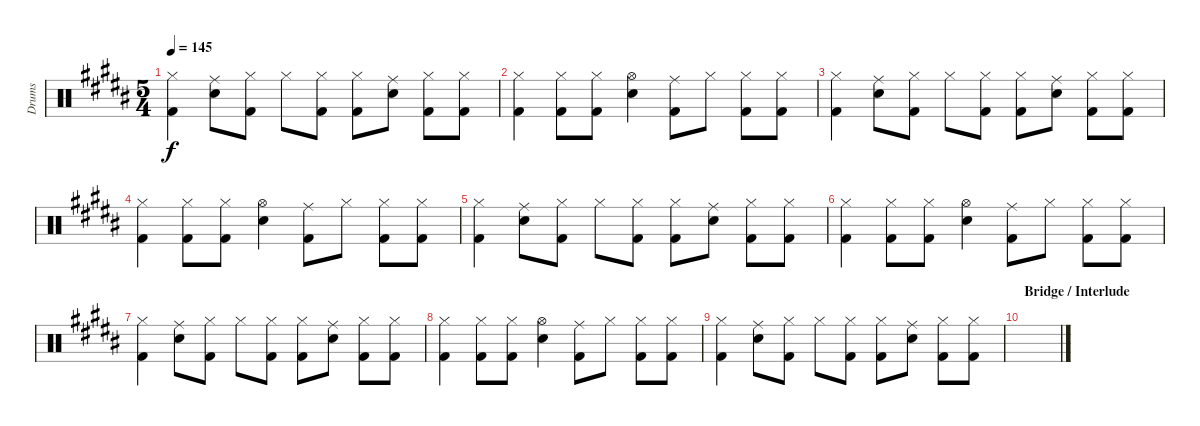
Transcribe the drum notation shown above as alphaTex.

\track ("Drums" "Drums") {instrument percussion}
\staff {score}
\articulation defaults
\ts (5 4)
\tempo 145
\clef neutral
\ks b
("Hi-Hat (closed)" "Kick (hit) 2").4{dy f} ("Ride (middle)" "Electric Snare (hit)").8 ("Hi-Hat (closed)" "Kick (hit) 2").8 "Hi-Hat (closed)".8 ("Hi-Hat (closed)" "Kick (hit) 2").8 ("Hi-Hat (closed)" "Kick (hit) 2").8 ("Ride (middle)" "Electric Snare (hit)").8 ("Hi-Hat (closed)" "Kick (hit) 2").8 ("Hi-Hat (closed)" "Kick (hit) 2").8 |
("Hi-Hat (closed)" "Kick (hit) 2").4 ("Hi-Hat (closed)" "Kick (hit) 2").8 ("Hi-Hat (closed)" "Kick (hit) 2").8 ("Hi-Hat (open)" "Electric Snare (hit)").4 ("Ride (middle)" "Kick (hit) 2").8 "Hi-Hat (closed)".8 ("Hi-Hat (closed)" "Kick (hit) 2").8 ("Hi-Hat (closed)" "Kick (hit) 2").8 |
("Hi-Hat (closed)" "Kick (hit) 2").4 ("Ride (middle)" "Electric Snare (hit)").8 ("Hi-Hat (closed)" "Kick (hit) 2").8 "Hi-Hat (closed)".8 ("Hi-Hat (closed)" "Kick (hit) 2").8 ("Hi-Hat (closed)" "Kick (hit) 2").8 ("Ride (middle)" "Electric Snare (hit)").8 ("Hi-Hat (closed)" "Kick (hit) 2").8 ("Hi-Hat (closed)" "Kick (hit) 2").8 |
("Hi-Hat (closed)" "Kick (hit) 2").4 ("Hi-Hat (closed)" "Kick (hit) 2").8 ("Hi-Hat (closed)" "Kick (hit) 2").8 ("Hi-Hat (open)" "Electric Snare (hit)").4 ("Ride (middle)" "Kick (hit) 2").8 "Hi-Hat (closed)".8 ("Hi-Hat (closed)" "Kick (hit) 2").8 ("Hi-Hat (closed)" "Kick (hit) 2").8 |
("Hi-Hat (closed)" "Kick (hit) 2").4 ("Ride (middle)" "Electric Snare (hit)").8 ("Hi-Hat (closed)" "Kick (hit) 2").8 "Hi-Hat (closed)".8 ("Hi-Hat (closed)" "Kick (hit) 2").8 ("Hi-Hat (closed)" "Kick (hit) 2").8 ("Ride (middle)" "Electric Snare (hit)").8 ("Hi-Hat (closed)" "Kick (hit) 2").8 ("Hi-Hat (closed)" "Kick (hit) 2").8 |
("Hi-Hat (closed)" "Kick (hit) 2").4 ("Hi-Hat (closed)" "Kick (hit) 2").8 ("Hi-Hat (closed)" "Kick (hit) 2").8 ("Hi-Hat (open)" "Electric Snare (hit)").4 ("Ride (middle)" "Kick (hit) 2").8 "Hi-Hat (closed)".8 ("Hi-Hat (closed)" "Kick (hit) 2").8 ("Hi-Hat (closed)" "Kick (hit) 2").8 |
("Hi-Hat (closed)" "Kick (hit) 2").4 ("Ride (middle)" "Electric Snare (hit)").8 ("Hi-Hat (closed)" "Kick (hit) 2").8 "Hi-Hat (closed)".8 ("Hi-Hat (closed)" "Kick (hit) 2").8 ("Hi-Hat (closed)" "Kick (hit) 2").8 ("Ride (middle)" "Electric Snare (hit)").8 ("Hi-Hat (closed)" "Kick (hit) 2").8 ("Hi-Hat (closed)" "Kick (hit) 2").8 |
("Hi-Hat (closed)" "Kick (hit) 2").4 ("Hi-Hat (closed)" "Kick (hit) 2").8 ("Hi-Hat (closed)" "Kick (hit) 2").8 ("Hi-Hat (open)" "Electric Snare (hit)").4 ("Ride (middle)" "Kick (hit) 2").8 "Hi-Hat (closed)".8 ("Hi-Hat (closed)" "Kick (hit) 2").8 ("Hi-Hat (closed)" "Kick (hit) 2").8 |
("Hi-Hat (closed)" "Kick (hit) 2").4 ("Ride (middle)" "Electric Snare (hit)").8 ("Hi-Hat (closed)" "Kick (hit) 2").8 "Hi-Hat (closed)".8 ("Hi-Hat (closed)" "Kick (hit) 2").8 ("Hi-Hat (closed)" "Kick (hit) 2").8 ("Ride (middle)" "Electric Snare (hit)").8 ("Hi-Hat (closed)" "Kick (hit) 2").8 ("Hi-Hat (closed)" "Kick (hit) 2").8 |
\section ("" "Bridge / Interlude")
